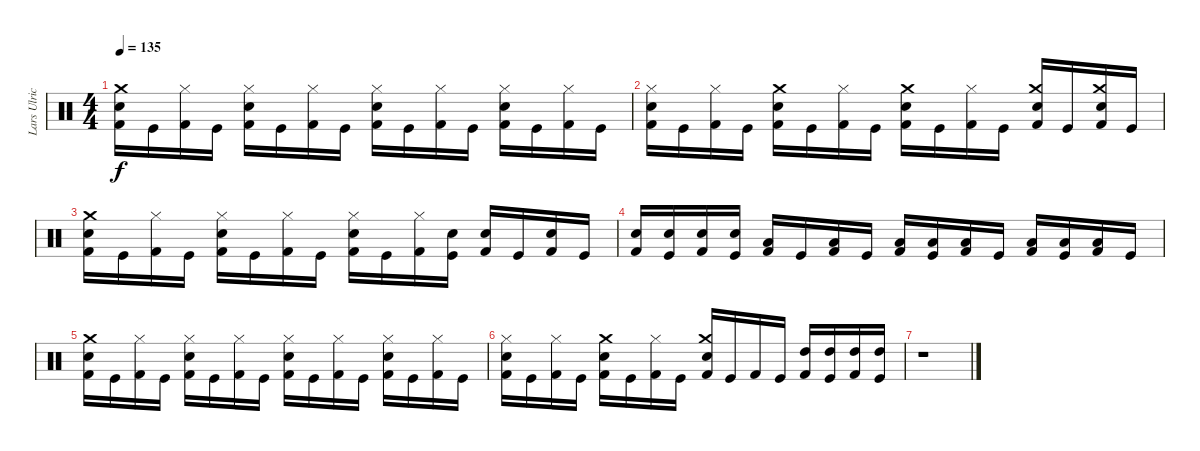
\track ("Lars Ulrich (Drums)" "Lars Ulric") {instrument percussion}
\staff {score}
\articulation defaults
\ts (4 4)
\tempo 135
\clef neutral
\ks c
("Snare (hit) 2" "Crash medium (hit)" "Kick (hit) 2").16{dy f volume 6} "Kick (hit)".16 ("Hi-Hat (closed)" "Kick (hit) 2").16 "Kick (hit)".16 ("Snare (hit) 2" "Hi-Hat (closed)" "Kick (hit) 2").16 "Kick (hit)".16 ("Hi-Hat (closed)" "Kick (hit) 2").16 "Kick (hit)".16 ("Snare (hit) 2" "Hi-Hat (closed)" "Kick (hit) 2").16 "Kick (hit)".16 ("Hi-Hat (closed)" "Kick (hit) 2").16 "Kick (hit)".16 ("Snare (hit) 2" "Hi-Hat (closed)" "Kick (hit) 2").16 "Kick (hit)".16 ("Hi-Hat (closed)" "Kick (hit) 2").16 "Kick (hit)".16 |
("Snare (hit) 2" "Hi-Hat (closed)" "Kick (hit) 2").16 "Kick (hit)".16 ("Hi-Hat (closed)" "Kick (hit) 2").16 "Kick (hit)".16 ("Crash medium (hit)" "Snare (hit) 2" "Kick (hit) 2").16 "Kick (hit)".16 ("Hi-Hat (closed)" "Kick (hit) 2").16 "Kick (hit)".16 ("Crash medium (hit)" "Snare (hit) 2" "Kick (hit) 2").16 "Kick (hit)".16 ("Hi-Hat (closed)" "Kick (hit) 2").16 "Kick (hit)".16 ("Crash medium (hit)" "Snare (hit) 2" "Kick (hit) 2").16 "Kick (hit)".16 ("Crash medium (hit)" "Snare (hit) 2" "Kick (hit) 2").16 "Kick (hit)".16 |
("Snare (hit) 2" "Crash medium (hit)" "Kick (hit) 2").16{volume 5} "Kick (hit)".16 ("Hi-Hat (closed)" "Kick (hit) 2").16 "Kick (hit)".16 ("Snare (hit) 2" "Hi-Hat (closed)" "Kick (hit) 2").16 "Kick (hit)".16 ("Hi-Hat (closed)" "Kick (hit) 2").16 "Kick (hit)".16 ("Snare (hit) 2" "Hi-Hat (closed)" "Kick (hit) 2").16 "Kick (hit)".16 ("Hi-Hat (closed)" "Kick (hit) 2").16 ("Snare (hit) 2" "Kick (hit)").16 ("Snare (hit) 2" "Kick (hit) 2").16 "Kick (hit)".16 ("Snare (hit) 2" "Kick (hit) 2").16 "Kick (hit)".16 |
("Snare (hit) 2" "Kick (hit) 2").16 ("Snare (hit) 2" "Kick (hit)").16 ("Snare (hit) 2" "Kick (hit) 2").16 ("Snare (hit) 2" "Kick (hit)").16 ("Low Tom (hit)" "Kick (hit) 2").16 "Kick (hit)".16 ("Low Tom (hit)" "Kick (hit) 2").16 "Kick (hit)".16 ("Low Tom (hit)" "Kick (hit) 2").16 ("Low Tom (hit)" "Kick (hit)").16 ("Low Tom (hit)" "Kick (hit) 2").16 "Kick (hit)".16 ("Low Tom (hit)" "Kick (hit) 2").16 ("Low Tom (hit)" "Kick (hit)").16 ("Low Tom (hit)" "Kick (hit) 2").16 "Kick (hit)".16 |
("Crash medium (hit)" "Snare (hit) 2" "Kick (hit) 2").16{volume 2} "Kick (hit)".16 ("Hi-Hat (closed)" "Kick (hit) 2").16 "Kick (hit)".16 ("Snare (hit) 2" "Hi-Hat (closed)" "Kick (hit) 2").16 "Kick (hit)".16 ("Hi-Hat (closed)" "Kick (hit) 2").16 "Kick (hit)".16 ("Snare (hit) 2" "Hi-Hat (closed)" "Kick (hit) 2").16 "Kick (hit)".16 ("Hi-Hat (closed)" "Kick (hit) 2").16 "Kick (hit)".16 ("Snare (hit) 2" "Hi-Hat (closed)" "Kick (hit) 2").16 "Kick (hit)".16 ("Hi-Hat (closed)" "Kick (hit) 2").16 "Kick (hit)".16 |
("Snare (hit) 2" "Hi-Hat (closed)" "Kick (hit) 2").16 "Kick (hit)".16 ("Hi-Hat (closed)" "Kick (hit) 2").16 "Kick (hit)".16 ("Crash medium (hit)" "Snare (hit) 2" "Kick (hit) 2").16 "Kick (hit)".16 ("Hi-Hat (closed)" "Kick (hit) 2").16 "Kick (hit)".16 ("Snare (hit) 2" "Crash medium (hit)" "Kick (hit) 2").16 "Kick (hit)".16 "Kick (hit) 2".16 "Kick (hit)".16 ("High Tom (hit)" "Kick (hit) 2").16 ("High Tom (hit)" "Kick (hit)").16 ("High Tom (hit)" "Kick (hit) 2").16 ("High Tom (hit)" "Kick (hit)").16 |
r.1
